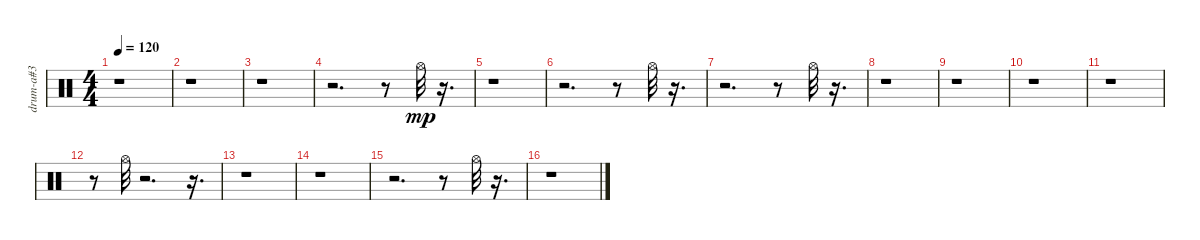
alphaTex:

\track ("drum-a#3" "drum-a#3") {instrument percussion}
\staff {score}
\articulation defaults
\ts (4 4)
\tempo 120
\clef neutral
\ks c
r.1{dy mp} |
r.1 |
r.1 |
r.2{d} r.8 "Hi-Hat (open)".32 r.16{d} |
r.1 |
r.2{d} r.8 "Hi-Hat (open)".32 r.16{d} |
r.2{d} r.8 "Hi-Hat (open)".32 r.16{d} |
r.1 |
r.1 |
r.1 |
r.1 |
r.8 "Hi-Hat (open)".32 r.2{d} r.16{d} |
r.1 |
r.1 |
r.2{d} r.8 "Hi-Hat (open)".32 r.16{d} |
r.1
